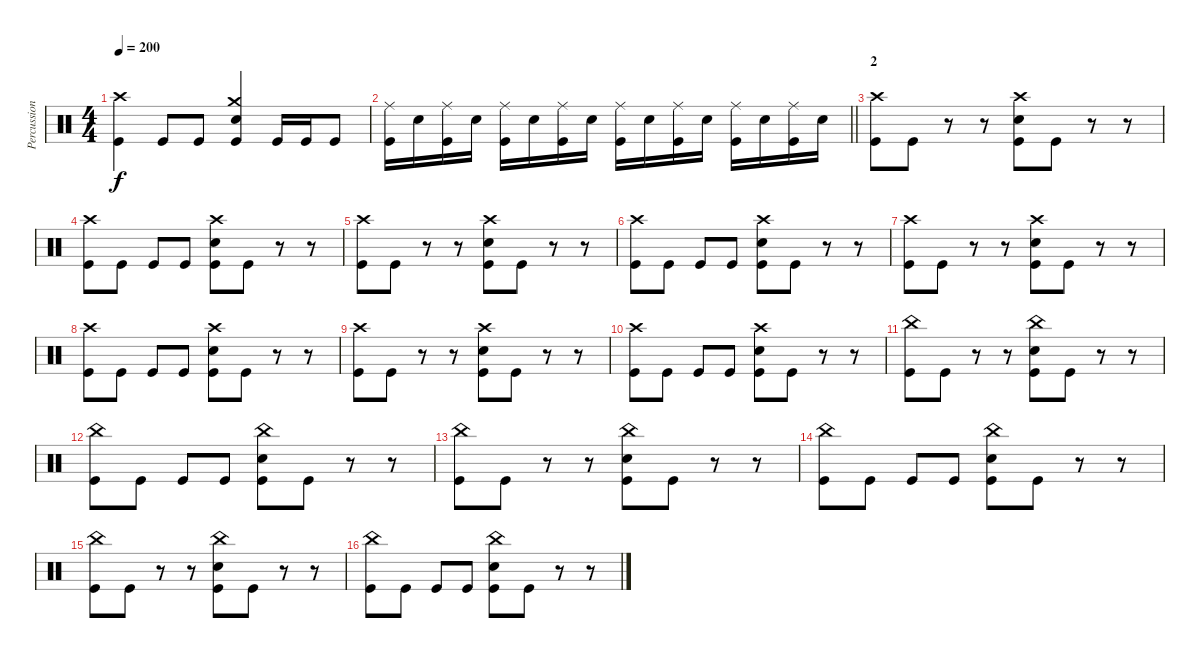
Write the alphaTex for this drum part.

\track ("Percussion" "Percussion") {instrument percussion}
\staff {score}
\articulation defaults
\ts (4 4)
\tempo 200
\clef neutral
\ks c
("Crash high (hit)" "Kick (hit)").4{dy f} "Kick (hit)".8 "Kick (hit)".8 ("Crash medium (hit)" "Snare (hit) 2" "Kick (hit)").4 "Kick (hit)".16 "Kick (hit)".16 "Kick (hit)".8 |
\barLineRight lightlight
("Ride (middle)" "Kick (hit)").16 "Snare (hit) 2".16 ("Ride (middle)" "Kick (hit)").16 "Snare (hit) 2".16 ("Ride (middle)" "Kick (hit)").16 "Snare (hit) 2".16 ("Ride (middle)" "Kick (hit)").16 "Snare (hit) 2".16 ("Ride (middle)" "Kick (hit)").16 "Snare (hit) 2".16 ("Ride (middle)" "Kick (hit)").16 "Snare (hit) 2".16 ("Ride (middle)" "Kick (hit)").16 "Snare (hit) 2".16 ("Ride (middle)" "Kick (hit)").16 "Snare (hit) 2".16 |
\section ("" "2")
("Crash high (hit)" "Kick (hit)").8 "Kick (hit)".8 r.8 r.8 ("Crash high (hit)" "Snare (hit) 2" "Kick (hit)").8 "Kick (hit)".8 r.8 r.8 |
("Crash high (hit)" "Kick (hit)").8 "Kick (hit)".8 "Kick (hit)".8 "Kick (hit)".8 ("Crash high (hit)" "Snare (hit) 2" "Kick (hit)").8 "Kick (hit)".8 r.8 r.8 |
("Crash high (hit)" "Kick (hit)").8 "Kick (hit)".8 r.8 r.8 ("Crash high (hit)" "Snare (hit) 2" "Kick (hit)").8 "Kick (hit)".8 r.8 r.8 |
("Crash high (hit)" "Kick (hit)").8 "Kick (hit)".8 "Kick (hit)".8 "Kick (hit)".8 ("Crash high (hit)" "Snare (hit) 2" "Kick (hit)").8 "Kick (hit)".8 r.8 r.8 |
("Crash high (hit)" "Kick (hit)").8 "Kick (hit)".8 r.8 r.8 ("Crash high (hit)" "Snare (hit) 2" "Kick (hit)").8 "Kick (hit)".8 r.8 r.8 |
("Crash high (hit)" "Kick (hit)").8 "Kick (hit)".8 "Kick (hit)".8 "Kick (hit)".8 ("Crash high (hit)" "Snare (hit) 2" "Kick (hit)").8 "Kick (hit)".8 r.8 r.8 |
("Crash high (hit)" "Kick (hit)").8 "Kick (hit)".8 r.8 r.8 ("Crash high (hit)" "Snare (hit) 2" "Kick (hit)").8 "Kick (hit)".8 r.8 r.8 |
("Crash high (hit)" "Kick (hit)").8 "Kick (hit)".8 "Kick (hit)".8 "Kick (hit)".8 ("Crash high (hit)" "Snare (hit) 2" "Kick (hit)").8 "Kick (hit)".8 r.8 r.8 |
("China (hit)" "Kick (hit)").8 "Kick (hit)".8 r.8 r.8 ("China (hit)" "Snare (hit) 2" "Kick (hit)").8 "Kick (hit)".8 r.8 r.8 |
("China (hit)" "Kick (hit)").8 "Kick (hit)".8 "Kick (hit)".8 "Kick (hit)".8 ("China (hit)" "Snare (hit) 2" "Kick (hit)").8 "Kick (hit)".8 r.8 r.8 |
("China (hit)" "Kick (hit)").8 "Kick (hit)".8 r.8 r.8 ("China (hit)" "Snare (hit) 2" "Kick (hit)").8 "Kick (hit)".8 r.8 r.8 |
("China (hit)" "Kick (hit)").8 "Kick (hit)".8 "Kick (hit)".8 "Kick (hit)".8 ("China (hit)" "Snare (hit) 2" "Kick (hit)").8 "Kick (hit)".8 r.8 r.8 |
("China (hit)" "Kick (hit)").8 "Kick (hit)".8 r.8 r.8 ("China (hit)" "Snare (hit) 2" "Kick (hit)").8 "Kick (hit)".8 r.8 r.8 |
("China (hit)" "Kick (hit)").8 "Kick (hit)".8 "Kick (hit)".8 "Kick (hit)".8 ("China (hit)" "Snare (hit) 2" "Kick (hit)").8 "Kick (hit)".8 r.8 r.8
